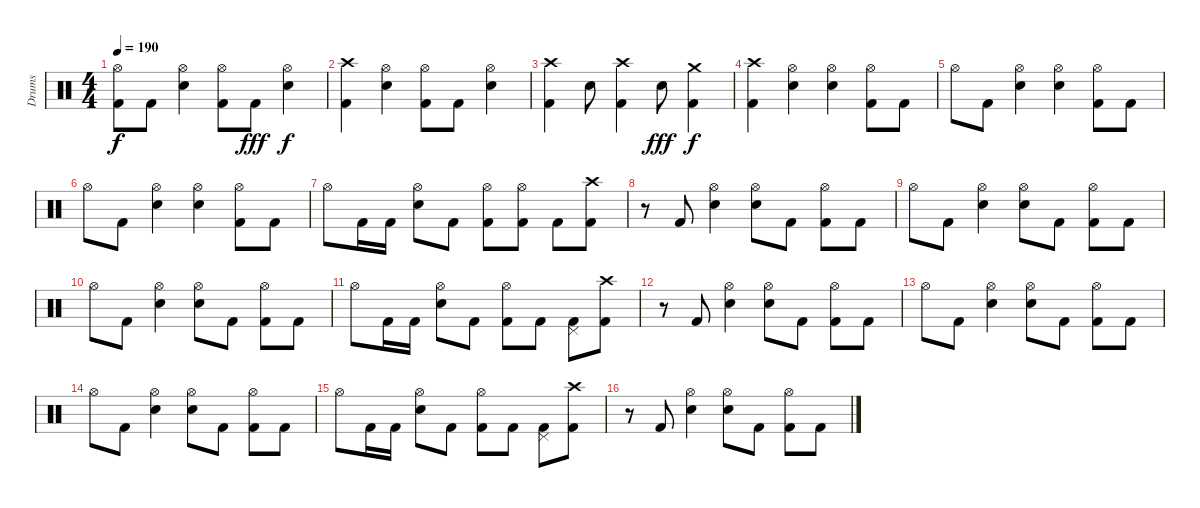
\track ("Drums" "Drums") {instrument percussion}
\staff {score}
\articulation defaults
\ts (4 4)
\tempo 190
\clef neutral
\ks c
("Hi-Hat (open)" "Kick (hit) 2").8{dy f} "Kick (hit) 2".8 ("Hi-Hat (open)" "Electric Snare (hit)").4 ("Hi-Hat (open)" "Kick (hit) 2").8 "Kick (hit) 2".8{dy fff} ("Hi-Hat (open)" "Electric Snare (hit)").4{dy f} |
("Crash high (hit)" "Kick (hit) 2").4 ("Hi-Hat (open)" "Electric Snare (hit)").4 ("Hi-Hat (open)" "Kick (hit) 2").8 "Kick (hit) 2".8 ("Hi-Hat (open)" "Electric Snare (hit)").4 |
("Crash high (hit)" "Kick (hit) 2").4 "Electric Snare (hit)".8 ("Crash high (hit)" "Kick (hit) 2").4 "Electric Snare (hit)".8{dy fff} ("Crash medium (hit)" "Kick (hit) 2").4{dy f} |
("Crash high (hit)" "Kick (hit) 2").4 ("Hi-Hat (open)" "Electric Snare (hit)").4 ("Hi-Hat (open)" "Electric Snare (hit)").4 ("Hi-Hat (open)" "Kick (hit) 2").8 "Kick (hit) 2".8 |
"Hi-Hat (open)".8 "Kick (hit) 2".8 ("Hi-Hat (open)" "Electric Snare (hit)").4 ("Hi-Hat (open)" "Electric Snare (hit)").4 ("Hi-Hat (open)" "Kick (hit) 2").8 "Kick (hit) 2".8 |
"Hi-Hat (open)".8 "Kick (hit) 2".8 ("Hi-Hat (open)" "Electric Snare (hit)").4 ("Hi-Hat (open)" "Electric Snare (hit)").4 ("Hi-Hat (open)" "Kick (hit) 2").8 "Kick (hit) 2".8 |
"Hi-Hat (open)".8 "Kick (hit) 2".16 "Kick (hit) 2".16 ("Hi-Hat (open)" "Electric Snare (hit)").8 "Kick (hit) 2".8 ("Hi-Hat (open)" "Kick (hit) 2").8 ("Hi-Hat (open)" "Kick (hit) 2").8 "Kick (hit) 2".8 ("Crash high (hit)" "Kick (hit) 2").8 |
r.8 "Kick (hit) 2".8 ("Hi-Hat (open)" "Electric Snare (hit)").4 ("Hi-Hat (open)" "Electric Snare (hit)").8 "Kick (hit) 2".8 ("Hi-Hat (open)" "Kick (hit) 2").8 "Kick (hit) 2".8 |
"Hi-Hat (open)".8 "Kick (hit) 2".8 ("Hi-Hat (open)" "Electric Snare (hit)").4 ("Hi-Hat (open)" "Electric Snare (hit)").8 "Kick (hit) 2".8 ("Hi-Hat (open)" "Kick (hit) 2").8 "Kick (hit) 2".8 |
"Hi-Hat (open)".8 "Kick (hit) 2".8 ("Hi-Hat (open)" "Electric Snare (hit)").4 ("Hi-Hat (open)" "Electric Snare (hit)").8 "Kick (hit) 2".8 ("Hi-Hat (open)" "Kick (hit) 2").8 "Kick (hit) 2".8 |
"Hi-Hat (open)".8 "Kick (hit) 2".16 "Kick (hit) 2".16 ("Hi-Hat (open)" "Electric Snare (hit)").8 "Kick (hit) 2".8 ("Hi-Hat (open)" "Kick (hit) 2").8 "Kick (hit) 2".8 ("Pedal Hi-Hat (hit)" "Kick (hit) 2").8 ("Crash high (hit)" "Kick (hit) 2").8 |
r.8 "Kick (hit) 2".8 ("Hi-Hat (open)" "Electric Snare (hit)").4 ("Hi-Hat (open)" "Electric Snare (hit)").8 "Kick (hit) 2".8 ("Hi-Hat (open)" "Kick (hit) 2").8 "Kick (hit) 2".8 |
"Hi-Hat (open)".8 "Kick (hit) 2".8 ("Hi-Hat (open)" "Electric Snare (hit)").4 ("Hi-Hat (open)" "Electric Snare (hit)").8 "Kick (hit) 2".8 ("Hi-Hat (open)" "Kick (hit) 2").8 "Kick (hit) 2".8 |
"Hi-Hat (open)".8 "Kick (hit) 2".8 ("Hi-Hat (open)" "Electric Snare (hit)").4 ("Hi-Hat (open)" "Electric Snare (hit)").8 "Kick (hit) 2".8 ("Hi-Hat (open)" "Kick (hit) 2").8 "Kick (hit) 2".8 |
"Hi-Hat (open)".8 "Kick (hit) 2".16 "Kick (hit) 2".16 ("Hi-Hat (open)" "Electric Snare (hit)").8 "Kick (hit) 2".8 ("Hi-Hat (open)" "Kick (hit) 2").8 "Kick (hit) 2".8 ("Pedal Hi-Hat (hit)" "Kick (hit) 2").8 ("Crash high (hit)" "Kick (hit) 2").8 |
r.8 "Kick (hit) 2".8 ("Hi-Hat (open)" "Electric Snare (hit)").4 ("Hi-Hat (open)" "Electric Snare (hit)").8 "Kick (hit) 2".8 ("Hi-Hat (open)" "Kick (hit) 2").8 "Kick (hit) 2".8
